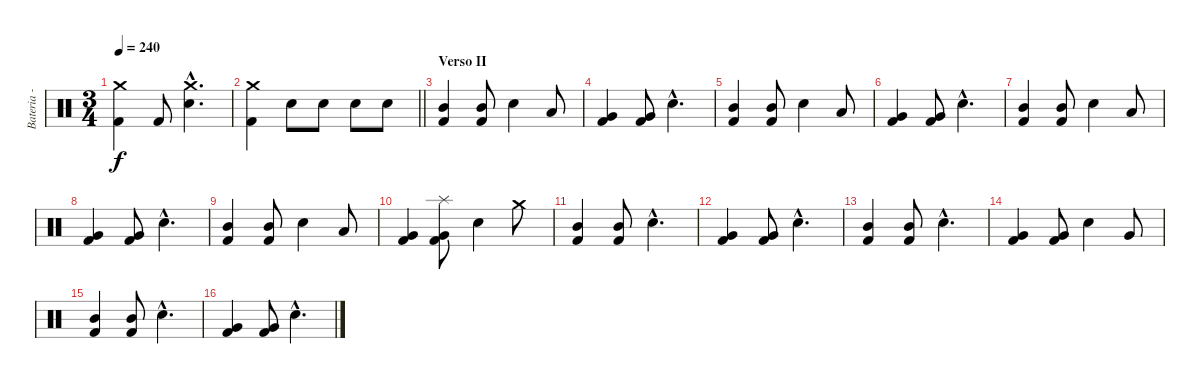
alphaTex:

\track ("Bateria - Larzon" "Bateria - ") {instrument percussion}
\staff {score}
\articulation defaults
\ts (3 4)
\tempo 240
\clef neutral
\ks c
("Kick (hit) 2" "Crash medium (hit)").4{dy f} "Kick (hit) 2".8 ("Snare (hit) 2"{hac} "Crash medium (hit)"{hac}).4{d} |
\barLineRight lightlight
("Kick (hit) 2" "Crash medium (hit)").4 "Snare (hit) 2".8 "Snare (hit) 2".8 "Snare (hit) 2".8 "Snare (hit) 2".8 |
\section ("" "Verso II")
("Kick (hit) 2" "Mid Tom (hit)").4 ("Kick (hit) 2" "Mid Tom (hit)").8 "Snare (hit) 2".4 "Low Tom (hit)".8 |
("Kick (hit) 2" "Very Low Tom (hit)").4 ("Kick (hit) 2" "Very Low Tom (hit)").8 "Snare (hit) 2"{hac}.4{d} |
("Kick (hit) 2" "Mid Tom (hit)").4 ("Kick (hit) 2" "Mid Tom (hit)").8 "Snare (hit) 2".4 "Low Tom (hit)".8 |
("Kick (hit) 2" "Very Low Tom (hit)").4 ("Kick (hit) 2" "Very Low Tom (hit)").8 "Snare (hit) 2"{hac}.4{d} |
("Kick (hit) 2" "Mid Tom (hit)").4 ("Kick (hit) 2" "Mid Tom (hit)").8 "Snare (hit) 2".4 "Low Tom (hit)".8 |
("Kick (hit) 2" "Very Low Tom (hit)").4 ("Kick (hit) 2" "Very Low Tom (hit)").8 "Snare (hit) 2"{hac}.4{d} |
("Kick (hit) 2" "Mid Tom (hit)").4 ("Kick (hit) 2" "Mid Tom (hit)").8 "Snare (hit) 2".4 "Low Tom (hit)".8 |
("Kick (hit) 2" "Very Low Tom (hit)").4 ("Kick (hit) 2" "Very Low Tom (hit)" "Splash (hit)").8 "Snare (hit) 2".4 "Crash medium (hit)".8 |
("Kick (hit) 2" "Mid Tom (hit)").4 ("Kick (hit) 2" "Mid Tom (hit)").8 "Snare (hit) 2"{hac}.4{d} |
("Kick (hit) 2" "Very Low Tom (hit)").4 ("Kick (hit) 2" "Very Low Tom (hit)").8 "Snare (hit) 2"{hac}.4{d} |
("Kick (hit) 2" "Mid Tom (hit)").4 ("Kick (hit) 2" "Mid Tom (hit)").8 "Snare (hit) 2"{hac}.4{d} |
("Kick (hit) 2" "Very Low Tom (hit)").4 ("Kick (hit) 2" "Very Low Tom (hit)").8 "Snare (hit) 2".4 "Very Low Tom (hit)".8 |
("Kick (hit) 2" "Mid Tom (hit)").4 ("Kick (hit) 2" "Mid Tom (hit)").8 "Snare (hit) 2"{hac}.4{d} |
("Kick (hit) 2" "Very Low Tom (hit)").4 ("Kick (hit) 2" "Very Low Tom (hit)").8 "Snare (hit) 2"{hac}.4{d}
